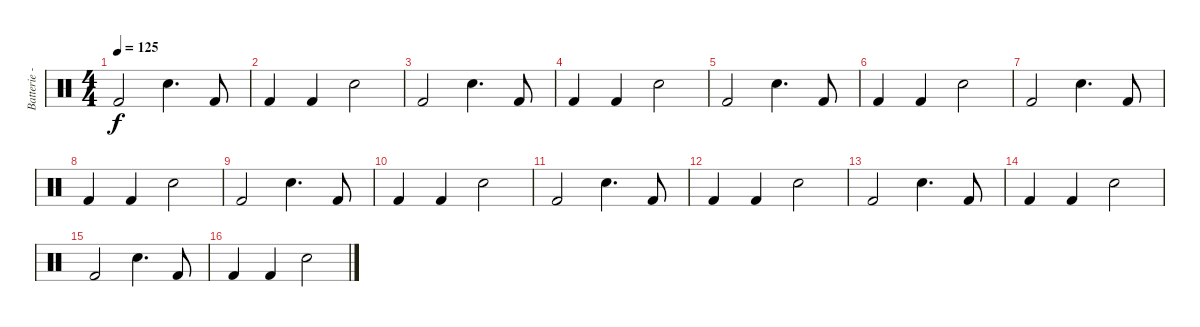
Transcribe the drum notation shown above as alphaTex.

\track ("Batterie - Shane Gaalaas" "Batterie -") {instrument percussion}
\staff {score}
\articulation defaults
\ts (4 4)
\tempo 125
\clef neutral
\ks c "Kick (hit) 2".2{dy f} "Electric Snare (hit)".4{d} "Kick (hit) 2".8
|
"Kick (hit) 2".4 "Kick (hit) 2".4 "Electric Snare (hit)".2 |
"Kick (hit) 2".2 "Electric Snare (hit)".4{d} "Kick (hit) 2".8 |
"Kick (hit) 2".4 "Kick (hit) 2".4 "Electric Snare (hit)".2 |
"Kick (hit) 2".2 "Electric Snare (hit)".4{d} "Kick (hit) 2".8 |
"Kick (hit) 2".4 "Kick (hit) 2".4 "Electric Snare (hit)".2 |
"Kick (hit) 2".2 "Electric Snare (hit)".4{d} "Kick (hit) 2".8 |
"Kick (hit) 2".4 "Kick (hit) 2".4 "Electric Snare (hit)".2 |
"Kick (hit) 2".2 "Electric Snare (hit)".4{d} "Kick (hit) 2".8 |
"Kick (hit) 2".4 "Kick (hit) 2".4 "Electric Snare (hit)".2 |
"Kick (hit) 2".2 "Electric Snare (hit)".4{d} "Kick (hit) 2".8 |
"Kick (hit) 2".4 "Kick (hit) 2".4 "Electric Snare (hit)".2 |
"Kick (hit) 2".2 "Electric Snare (hit)".4{d} "Kick (hit) 2".8 |
"Kick (hit) 2".4 "Kick (hit) 2".4 "Electric Snare (hit)".2 |
"Kick (hit) 2".2 "Electric Snare (hit)".4{d} "Kick (hit) 2".8 |
"Kick (hit) 2".4 "Kick (hit) 2".4 "Electric Snare (hit)".2
